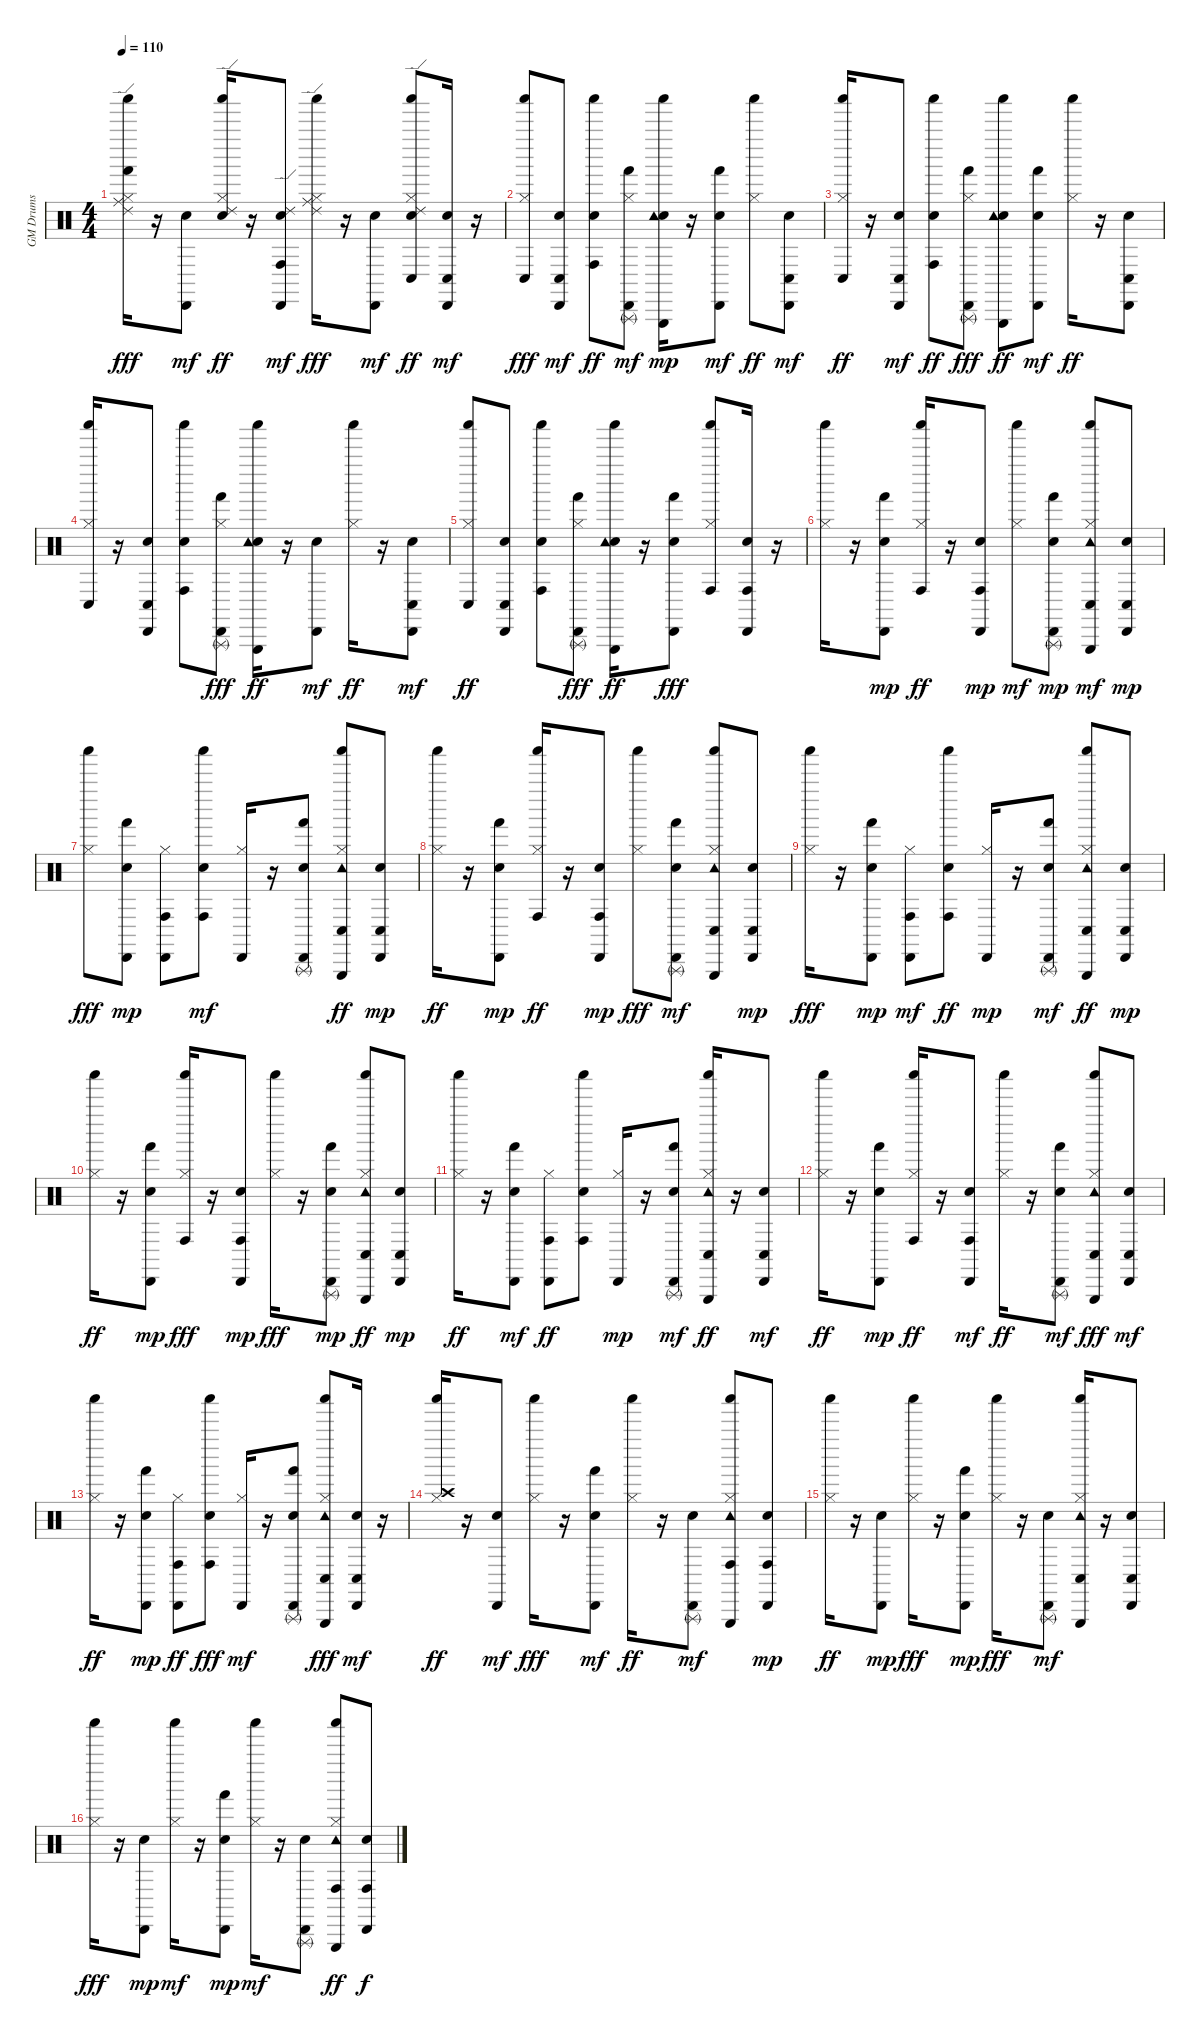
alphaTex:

\track ("GM Drums" "GM Drums") {instrument percussion}
\staff {score}
\articulation defaults
\ts (4 4)
\tempo 110
\clef neutral
\ks c
("Hi-Hat (closed)" "Ride (middle)" "Ride (edge) 2" "Hand (hit)" "Shaker (hit)").16{dy fff} r.16 ("Snare (hit)" "Cabasa (hit)").8{dy mf} ("Snare (hit) 2" "Hi-Hat (closed)" "Ride (edge) 2" "Shaker (hit)").16{dy ff} r.16 ("Snare (hit)" "Ride (edge) 2" "Conga high (hit)" "Cabasa (hit)").8{dy mf} ("Hi-Hat (closed)" "Ride (middle)" "Ride (edge) 2" "Shaker (hit)").16{dy fff} r.16 ("Snare (hit)" "Cabasa (hit)").8{dy mf} ("Snare (hit) 2" "Hi-Hat (closed)" "Ride (edge) 2" "Conga low (hit)" "Shaker (hit)").8{dy ff} ("Snare (hit)" "Conga low (hit)" "Cabasa (hit)").16{dy mf} r.16 |
("Hi-Hat (closed)" "Conga low (hit)" "Shaker (hit)").8{dy fff} ("Snare (hit)" "Conga low (hit)" "Cabasa (hit)").8{dy mf} ("Snare (hit)" "Conga high (hit)" "Shaker (hit)").8{dy ff} ("Hi-Hat (closed)" "Hand (hit)" "Cabasa (hit)" "Triangle (rnute)").8{dy mf} ("Snare (hit)" "Tambourine (hit)" "Triangle (hit)" "Shaker (hit)").16{dy mp} r.16 ("Snare (hit)" "Hand (hit)" "Cabasa (hit)").8{dy mf} ("Hi-Hat (closed)" "Shaker (hit)").8{dy ff} ("Snare (hit)" "Conga low (hit)" "Cabasa (hit)").8{dy mf} |
("Hi-Hat (closed)" "Conga low (hit)" "Shaker (hit)").16{dy ff} r.16 ("Snare (hit)" "Conga low (hit)" "Cabasa (hit)").8{dy mf} ("Snare (hit)" "Conga high (hit)" "Shaker (hit)").8{dy ff} ("Hi-Hat (closed)" "Hand (hit)" "Cabasa (hit)" "Triangle (rnute)").8{dy fff} ("Snare (hit)" "Tambourine (hit)" "Triangle (hit)" "Shaker (hit)").8{dy ff} ("Snare (hit)" "Hand (hit)" "Cabasa (hit)").8{dy mf} ("Hi-Hat (closed)" "Shaker (hit)").16{dy ff} r.16 ("Snare (hit)" "Conga low (hit)" "Cabasa (hit)").8 |
("Hi-Hat (closed)" "Conga low (hit)" "Shaker (hit)").16 r.16 ("Snare (hit)" "Conga low (hit)" "Cabasa (hit)").8 ("Snare (hit)" "Conga high (hit)" "Shaker (hit)").8 ("Hi-Hat (closed)" "Hand (hit)" "Cabasa (hit)" "Triangle (rnute)").8{dy fff} ("Snare (hit)" "Tambourine (hit)" "Triangle (hit)" "Shaker (hit)").16{dy ff} r.16 ("Snare (hit)" "Cabasa (hit)").8{dy mf} ("Hi-Hat (closed)" "Shaker (hit)").16{dy ff} r.16 ("Snare (hit)" "Conga low (hit)" "Cabasa (hit)").8{dy mf} |
("Hi-Hat (closed)" "Conga low (hit)" "Shaker (hit)").8{dy ff} ("Snare (hit)" "Conga low (hit)" "Cabasa (hit)").8 ("Snare (hit)" "Conga high (hit)" "Shaker (hit)").8 ("Hi-Hat (closed)" "Hand (hit)" "Cabasa (hit)" "Triangle (rnute)").8{dy fff} ("Snare (hit)" "Tambourine (hit)" "Triangle (hit)" "Shaker (hit)").16{dy ff} r.16 ("Snare (hit)" "Hand (hit)" "Cabasa (hit)").8{dy fff} ("Hi-Hat (closed)" "Conga high (hit)" "Shaker (hit)").8 ("Snare (hit)" "Conga high (hit)" "Cabasa (hit)").16 r.16 |
("Hi-Hat (closed)" "Shaker (hit)").16 r.16 ("Snare (hit)" "Hand (hit)" "Cabasa (hit)").8{dy mp} ("Hi-Hat (closed)" "Conga high (hit)" "Shaker (hit)").16{dy ff} r.16 ("Snare (hit)" "Conga high (hit)" "Cabasa (hit)").8{dy mp} ("Hi-Hat (closed)" "Shaker (hit)").8{dy mf} ("Snare (hit)" "Hand (hit)" "Cabasa (hit)" "Triangle (rnute)").8{dy mp} ("Hi-Hat (closed)" "Tambourine (hit)" "Conga low (hit)" "Triangle (hit)" "Shaker (hit)").8{dy mf} ("Snare (hit)" "Conga low (hit)" "Cabasa (hit)").8{dy mp} |
("Hi-Hat (closed)" "Shaker (hit)").8{dy fff} ("Snare (hit)" "Hand (hit)" "Cabasa (hit)").8{dy mp} ("Hi-Hat (closed)" "Conga high (hit)" "Cabasa (hit)").8 ("Snare (hit)" "Conga high (hit)" "Shaker (hit)").8{dy mf} ("Hi-Hat (closed)" "Cabasa (hit)").16 r.16 ("Snare (hit)" "Hand (hit)" "Cabasa (hit)" "Triangle (rnute)").8 ("Hi-Hat (closed)" "Tambourine (hit)" "Conga low (hit)" "Triangle (hit)" "Shaker (hit)").8{dy ff} ("Snare (hit)" "Conga low (hit)" "Cabasa (hit)").8{dy mp} |
("Hi-Hat (closed)" "Shaker (hit)").16{dy ff} r.16 ("Snare (hit)" "Hand (hit)" "Cabasa (hit)").8{dy mp} ("Hi-Hat (closed)" "Conga high (hit)" "Shaker (hit)").16{dy ff} r.16 ("Snare (hit)" "Conga high (hit)" "Cabasa (hit)").8{dy mp} ("Hi-Hat (closed)" "Shaker (hit)").8{dy fff} ("Snare (hit)" "Hand (hit)" "Cabasa (hit)" "Triangle (rnute)").8{dy mf} ("Hi-Hat (closed)" "Tambourine (hit)" "Conga low (hit)" "Triangle (hit)" "Shaker (hit)").8 ("Snare (hit)" "Conga low (hit)" "Cabasa (hit)").8{dy mp} |
("Hi-Hat (closed)" "Shaker (hit)").16{dy fff} r.16 ("Snare (hit)" "Hand (hit)" "Cabasa (hit)").8{dy mp} ("Hi-Hat (closed)" "Conga high (hit)" "Cabasa (hit)").8{dy mf} ("Snare (hit)" "Conga high (hit)" "Shaker (hit)").8{dy ff} ("Hi-Hat (closed)" "Cabasa (hit)").16{dy mp} r.16 ("Snare (hit)" "Hand (hit)" "Cabasa (hit)" "Triangle (rnute)").8{dy mf} ("Hi-Hat (closed)" "Tambourine (hit)" "Conga low (hit)" "Triangle (hit)" "Shaker (hit)").8{dy ff} ("Snare (hit)" "Conga low (hit)" "Cabasa (hit)").8{dy mp} |
("Hi-Hat (closed)" "Shaker (hit)").16{dy ff} r.16 ("Snare (hit)" "Hand (hit)" "Cabasa (hit)").8{dy mp} ("Hi-Hat (closed)" "Conga high (hit)" "Shaker (hit)").16{dy fff} r.16 ("Snare (hit)" "Conga high (hit)" "Cabasa (hit)").8{dy mp} ("Hi-Hat (closed)" "Shaker (hit)").16{dy fff} r.16 ("Snare (hit)" "Hand (hit)" "Cabasa (hit)" "Triangle (rnute)").8{dy mp} ("Hi-Hat (closed)" "Tambourine (hit)" "Conga low (hit)" "Triangle (hit)" "Shaker (hit)").8{dy ff} ("Snare (hit)" "Conga low (hit)" "Cabasa (hit)").8{dy mp} |
("Hi-Hat (closed)" "Shaker (hit)").16{dy ff} r.16 ("Snare (hit)" "Hand (hit)" "Cabasa (hit)").8{dy mf} ("Hi-Hat (closed)" "Conga high (hit)" "Cabasa (hit)").8{dy ff} ("Snare (hit)" "Conga high (hit)" "Shaker (hit)").8 ("Hi-Hat (closed)" "Cabasa (hit)").16{dy mp} r.16 ("Snare (hit)" "Hand (hit)" "Cabasa (hit)" "Triangle (rnute)").8{dy mf} ("Hi-Hat (closed)" "Tambourine (hit)" "Conga low (hit)" "Triangle (hit)" "Shaker (hit)").16{dy ff} r.16 ("Snare (hit)" "Conga low (hit)" "Cabasa (hit)").8{dy mf} |
("Hi-Hat (closed)" "Shaker (hit)").16{dy ff} r.16 ("Snare (hit)" "Hand (hit)" "Cabasa (hit)").8{dy mp} ("Hi-Hat (closed)" "Conga high (hit)" "Shaker (hit)").16{dy ff} r.16 ("Snare (hit)" "Conga high (hit)" "Cabasa (hit)").8{dy mf} ("Hi-Hat (closed)" "Shaker (hit)").16{dy ff} r.16 ("Snare (hit)" "Hand (hit)" "Cabasa (hit)" "Triangle (rnute)").8{dy mf} ("Hi-Hat (closed)" "Tambourine (hit)" "Conga low (hit)" "Triangle (hit)" "Shaker (hit)").8{dy fff} ("Snare (hit)" "Conga low (hit)" "Cabasa (hit)").8{dy mf} |
("Hi-Hat (closed)" "Shaker (hit)").16{dy ff} r.16 ("Snare (hit)" "Hand (hit)" "Cabasa (hit)").8{dy mp} ("Hi-Hat (closed)" "Conga high (hit)" "Cabasa (hit)").8{dy ff} ("Snare (hit)" "Conga high (hit)" "Shaker (hit)").8{dy fff} ("Hi-Hat (closed)" "Cabasa (hit)").16{dy mf} r.16 ("Snare (hit)" "Hand (hit)" "Cabasa (hit)" "Triangle (rnute)").8 ("Hi-Hat (closed)" "Tambourine (hit)" "Conga low (hit)" "Triangle (hit)" "Shaker (hit)").8{dy fff} ("Snare (hit)" "Conga low (hit)" "Cabasa (hit)").16{dy mf} r.16 |
("Hi-Hat (closed)" "Crash high (hit)" "Shaker (hit)").16{dy ff} r.16 ("Snare (hit)" "Cabasa (hit)").8{dy mf} ("Hi-Hat (closed)" "Shaker (hit)").16{dy fff} r.16 ("Snare (hit)" "Hand (hit)" "Cabasa (hit)").8{dy mf} ("Hi-Hat (closed)" "Shaker (hit)").16{dy ff} r.16 ("Snare (hit)" "Cabasa (hit)" "Triangle (rnute)").8{dy mf} ("Hi-Hat (closed)" "Tambourine (hit)" "Conga high (hit)" "Triangle (hit)" "Shaker (hit)").8 ("Snare (hit)" "Conga high (hit)" "Cabasa (hit)").8{dy mp} |
("Hi-Hat (closed)" "Shaker (hit)").16{dy ff} r.16 ("Snare (hit)" "Cabasa (hit)").8{dy mp} ("Hi-Hat (closed)" "Shaker (hit)").16{dy fff} r.16 ("Snare (hit)" "Hand (hit)" "Cabasa (hit)").8{dy mp} ("Hi-Hat (closed)" "Shaker (hit)").16{dy fff} r.16 ("Snare (hit)" "Cabasa (hit)" "Triangle (rnute)").8{dy mf} ("Hi-Hat (closed)" "Tambourine (hit)" "Conga low (hit)" "Triangle (hit)" "Shaker (hit)").16 r.16 ("Snare (hit)" "Conga low (hit)" "Cabasa (hit)").8 |
("Hi-Hat (closed)" "Shaker (hit)").16{dy fff} r.16 ("Snare (hit)" "Cabasa (hit)").8{dy mp} ("Hi-Hat (closed)" "Shaker (hit)").16{dy mf} r.16 ("Snare (hit)" "Hand (hit)" "Cabasa (hit)").8{dy mp} ("Hi-Hat (closed)" "Shaker (hit)").16{dy mf} r.16 ("Snare (hit)" "Cabasa (hit)" "Triangle (rnute)").8 ("Hi-Hat (closed)" "Tambourine (hit)" "Conga high (hit)" "Triangle (hit)" "Shaker (hit)").8{dy ff} ("Snare (hit)" "Conga high (hit)" "Cabasa (hit)").8{dy f}
